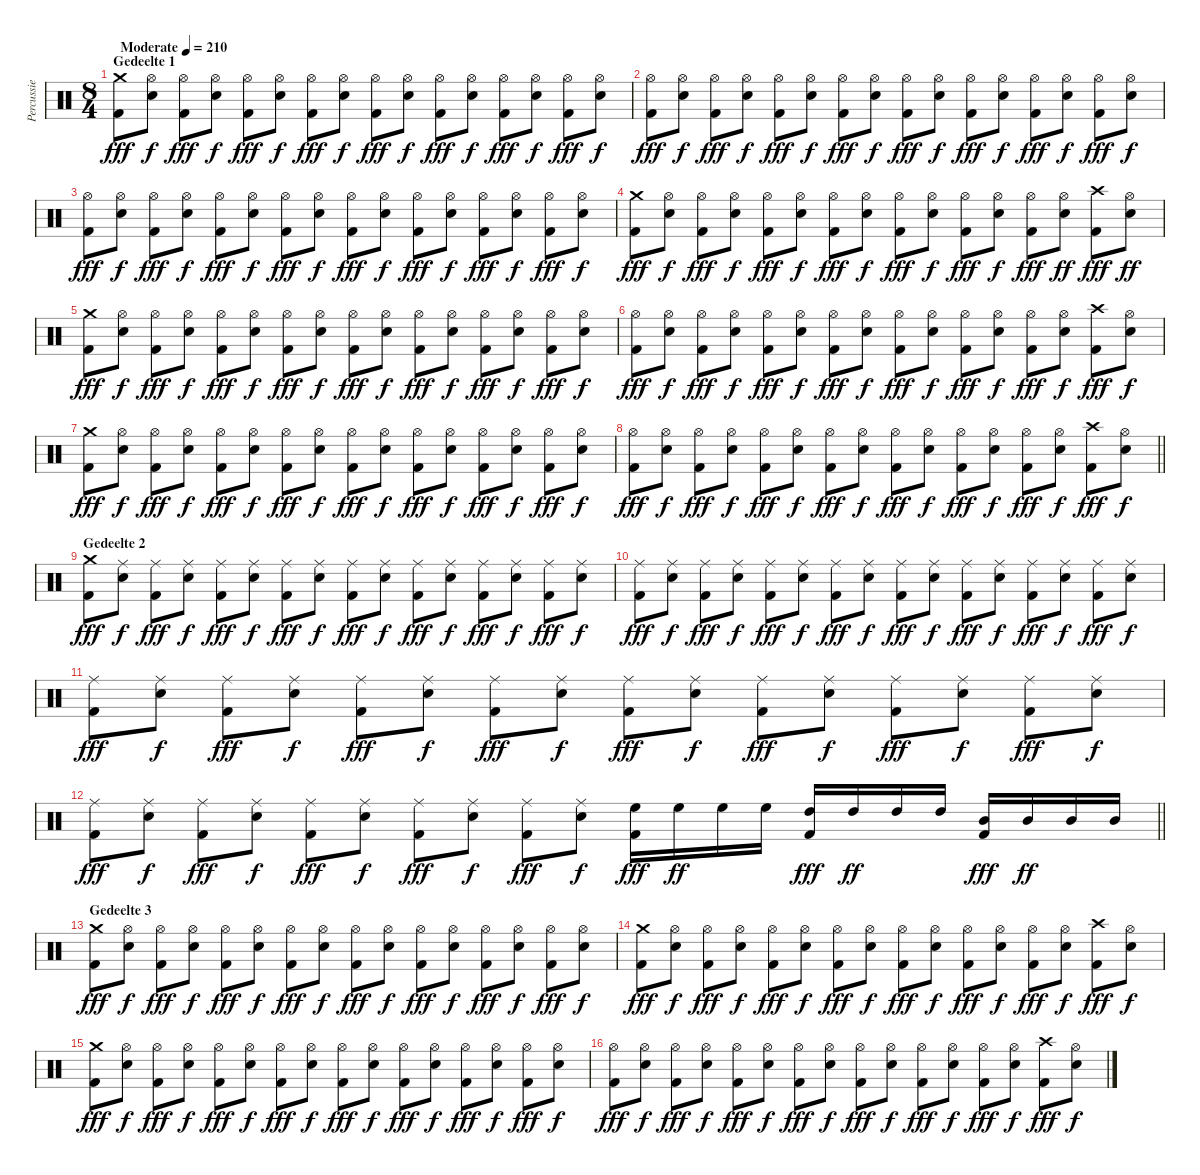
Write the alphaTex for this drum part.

\track ("Percussie" "Percussie") {instrument percussion}
\staff {score}
\articulation defaults
\ts (8 4)
\section ("" "Gedeelte 1")
\tempo (210 "Moderate")
\clef neutral
\ks c
("Crash medium (hit)" "Kick (hit) 2").8{dy fff} ("Hi-Hat (open)" "Snare (hit) 2").8{dy f} ("Hi-Hat (open)" "Kick (hit) 2").8{dy fff} ("Hi-Hat (open)" "Snare (hit) 2").8{dy f} ("Hi-Hat (open)" "Kick (hit) 2").8{dy fff} ("Hi-Hat (open)" "Snare (hit) 2").8{dy f} ("Hi-Hat (open)" "Kick (hit) 2").8{dy fff} ("Hi-Hat (open)" "Snare (hit) 2").8{dy f} ("Hi-Hat (open)" "Kick (hit) 2").8{dy fff} ("Hi-Hat (open)" "Snare (hit) 2").8{dy f} ("Hi-Hat (open)" "Kick (hit) 2").8{dy fff} ("Hi-Hat (open)" "Snare (hit) 2").8{dy f} ("Hi-Hat (open)" "Kick (hit) 2").8{dy fff} ("Hi-Hat (open)" "Snare (hit) 2").8{dy f} ("Hi-Hat (open)" "Kick (hit) 2").8{dy fff} ("Hi-Hat (open)" "Snare (hit) 2").8{dy f} |
("Hi-Hat (open)" "Kick (hit) 2").8{dy fff} ("Hi-Hat (open)" "Snare (hit) 2").8{dy f} ("Hi-Hat (open)" "Kick (hit) 2").8{dy fff} ("Hi-Hat (open)" "Snare (hit) 2").8{dy f} ("Hi-Hat (open)" "Kick (hit) 2").8{dy fff} ("Hi-Hat (open)" "Snare (hit) 2").8{dy f} ("Hi-Hat (open)" "Kick (hit) 2").8{dy fff} ("Hi-Hat (open)" "Snare (hit) 2").8{dy f} ("Hi-Hat (open)" "Kick (hit) 2").8{dy fff} ("Hi-Hat (open)" "Snare (hit) 2").8{dy f} ("Hi-Hat (open)" "Kick (hit) 2").8{dy fff} ("Hi-Hat (open)" "Snare (hit) 2").8{dy f} ("Hi-Hat (open)" "Kick (hit) 2").8{dy fff} ("Hi-Hat (open)" "Snare (hit) 2").8{dy f} ("Hi-Hat (open)" "Kick (hit) 2").8{dy fff} ("Hi-Hat (open)" "Snare (hit) 2").8{dy f} |
("Hi-Hat (open)" "Kick (hit) 2").8{dy fff} ("Hi-Hat (open)" "Snare (hit) 2").8{dy f} ("Hi-Hat (open)" "Kick (hit) 2").8{dy fff} ("Hi-Hat (open)" "Snare (hit) 2").8{dy f} ("Hi-Hat (open)" "Kick (hit) 2").8{dy fff} ("Hi-Hat (open)" "Snare (hit) 2").8{dy f} ("Hi-Hat (open)" "Kick (hit) 2").8{dy fff} ("Hi-Hat (open)" "Snare (hit) 2").8{dy f} ("Hi-Hat (open)" "Kick (hit) 2").8{dy fff} ("Hi-Hat (open)" "Snare (hit) 2").8{dy f} ("Hi-Hat (open)" "Kick (hit) 2").8{dy fff} ("Hi-Hat (open)" "Snare (hit) 2").8{dy f} ("Hi-Hat (open)" "Kick (hit) 2").8{dy fff} ("Hi-Hat (open)" "Snare (hit) 2").8{dy f} ("Hi-Hat (open)" "Kick (hit) 2").8{dy fff} ("Hi-Hat (open)" "Snare (hit) 2").8{dy f} |
("Crash medium (hit)" "Kick (hit) 2").8{dy fff} ("Hi-Hat (open)" "Snare (hit) 2").8{dy f} ("Hi-Hat (open)" "Kick (hit) 2").8{dy fff} ("Hi-Hat (open)" "Snare (hit) 2").8{dy f} ("Hi-Hat (open)" "Kick (hit) 2").8{dy fff} ("Hi-Hat (open)" "Snare (hit) 2").8{dy f} ("Hi-Hat (open)" "Kick (hit) 2").8{dy fff} ("Hi-Hat (open)" "Snare (hit) 2").8{dy f} ("Hi-Hat (open)" "Kick (hit) 2").8{dy fff} ("Hi-Hat (open)" "Snare (hit) 2").8{dy f} ("Hi-Hat (open)" "Kick (hit) 2").8{dy fff} ("Hi-Hat (open)" "Snare (hit) 2").8{dy f} ("Hi-Hat (open)" "Kick (hit) 2").8{dy fff} ("Hi-Hat (open)" "Snare (hit) 2").8{dy ff} ("Crash high (hit)" "Kick (hit) 2").8{dy fff} ("Hi-Hat (open)" "Snare (hit) 2").8{dy ff} |
("Crash medium (hit)" "Kick (hit) 2").8{dy fff} ("Hi-Hat (open)" "Snare (hit) 2").8{dy f} ("Hi-Hat (open)" "Kick (hit) 2").8{dy fff} ("Hi-Hat (open)" "Snare (hit) 2").8{dy f} ("Hi-Hat (open)" "Kick (hit) 2").8{dy fff} ("Hi-Hat (open)" "Snare (hit) 2").8{dy f} ("Hi-Hat (open)" "Kick (hit) 2").8{dy fff} ("Hi-Hat (open)" "Snare (hit) 2").8{dy f} ("Hi-Hat (open)" "Kick (hit) 2").8{dy fff} ("Hi-Hat (open)" "Snare (hit) 2").8{dy f} ("Hi-Hat (open)" "Kick (hit) 2").8{dy fff} ("Hi-Hat (open)" "Snare (hit) 2").8{dy f} ("Hi-Hat (open)" "Kick (hit) 2").8{dy fff} ("Hi-Hat (open)" "Snare (hit) 2").8{dy f} ("Hi-Hat (open)" "Kick (hit) 2").8{dy fff} ("Hi-Hat (open)" "Snare (hit) 2").8{dy f} |
("Hi-Hat (open)" "Kick (hit) 2").8{dy fff} ("Hi-Hat (open)" "Snare (hit) 2").8{dy f} ("Hi-Hat (open)" "Kick (hit) 2").8{dy fff} ("Hi-Hat (open)" "Snare (hit) 2").8{dy f} ("Hi-Hat (open)" "Kick (hit) 2").8{dy fff} ("Hi-Hat (open)" "Snare (hit) 2").8{dy f} ("Hi-Hat (open)" "Kick (hit) 2").8{dy fff} ("Hi-Hat (open)" "Snare (hit) 2").8{dy f} ("Hi-Hat (open)" "Kick (hit) 2").8{dy fff} ("Hi-Hat (open)" "Snare (hit) 2").8{dy f} ("Hi-Hat (open)" "Kick (hit) 2").8{dy fff} ("Hi-Hat (open)" "Snare (hit) 2").8{dy f} ("Hi-Hat (open)" "Kick (hit) 2").8{dy fff} ("Hi-Hat (open)" "Snare (hit) 2").8{dy f} ("Crash high (hit)" "Kick (hit) 2").8{dy fff} ("Hi-Hat (open)" "Snare (hit) 2").8{dy f} |
("Crash medium (hit)" "Kick (hit) 2").8{dy fff} ("Hi-Hat (open)" "Snare (hit) 2").8{dy f} ("Hi-Hat (open)" "Kick (hit) 2").8{dy fff} ("Hi-Hat (open)" "Snare (hit) 2").8{dy f} ("Hi-Hat (open)" "Kick (hit) 2").8{dy fff} ("Hi-Hat (open)" "Snare (hit) 2").8{dy f} ("Hi-Hat (open)" "Kick (hit) 2").8{dy fff} ("Hi-Hat (open)" "Snare (hit) 2").8{dy f} ("Hi-Hat (open)" "Kick (hit) 2").8{dy fff} ("Hi-Hat (open)" "Snare (hit) 2").8{dy f} ("Hi-Hat (open)" "Kick (hit) 2").8{dy fff} ("Hi-Hat (open)" "Snare (hit) 2").8{dy f} ("Hi-Hat (open)" "Kick (hit) 2").8{dy fff} ("Hi-Hat (open)" "Snare (hit) 2").8{dy f} ("Hi-Hat (open)" "Kick (hit) 2").8{dy fff} ("Hi-Hat (open)" "Snare (hit) 2").8{dy f} |
\barLineRight lightlight
("Hi-Hat (open)" "Kick (hit) 2").8{dy fff} ("Hi-Hat (open)" "Snare (hit) 2").8{dy f} ("Hi-Hat (open)" "Kick (hit) 2").8{dy fff} ("Hi-Hat (open)" "Snare (hit) 2").8{dy f} ("Hi-Hat (open)" "Kick (hit) 2").8{dy fff} ("Hi-Hat (open)" "Snare (hit) 2").8{dy f} ("Hi-Hat (open)" "Kick (hit) 2").8{dy fff} ("Hi-Hat (open)" "Snare (hit) 2").8{dy f} ("Hi-Hat (open)" "Kick (hit) 2").8{dy fff} ("Hi-Hat (open)" "Snare (hit) 2").8{dy f} ("Hi-Hat (open)" "Kick (hit) 2").8{dy fff} ("Hi-Hat (open)" "Snare (hit) 2").8{dy f} ("Hi-Hat (open)" "Kick (hit) 2").8{dy fff} ("Hi-Hat (open)" "Snare (hit) 2").8{dy f} ("Crash high (hit)" "Kick (hit) 2").8{dy fff} ("Hi-Hat (open)" "Snare (hit) 2").8{dy f} |
\section ("" "Gedeelte 2")
("Crash medium (hit)" "Kick (hit) 2").8{dy fff} ("Ride (middle)" "Snare (hit) 2").8{dy f} ("Ride (middle)" "Kick (hit) 2").8{dy fff} ("Ride (middle)" "Snare (hit) 2").8{dy f} ("Ride (middle)" "Kick (hit) 2").8{dy fff} ("Ride (middle)" "Snare (hit) 2").8{dy f} ("Ride (middle)" "Kick (hit) 2").8{dy fff} ("Ride (middle)" "Snare (hit) 2").8{dy f} ("Ride (middle)" "Kick (hit) 2").8{dy fff} ("Ride (middle)" "Snare (hit) 2").8{dy f} ("Ride (middle)" "Kick (hit) 2").8{dy fff} ("Ride (middle)" "Snare (hit) 2").8{dy f} ("Ride (middle)" "Kick (hit) 2").8{dy fff} ("Ride (middle)" "Snare (hit) 2").8{dy f} ("Ride (middle)" "Kick (hit) 2").8{dy fff} ("Ride (middle)" "Snare (hit) 2").8{dy f} |
("Ride (middle)" "Kick (hit) 2").8{dy fff} ("Ride (middle)" "Snare (hit) 2").8{dy f} ("Ride (middle)" "Kick (hit) 2").8{dy fff} ("Ride (middle)" "Snare (hit) 2").8{dy f} ("Ride (middle)" "Kick (hit) 2").8{dy fff} ("Ride (middle)" "Snare (hit) 2").8{dy f} ("Ride (middle)" "Kick (hit) 2").8{dy fff} ("Ride (middle)" "Snare (hit) 2").8{dy f} ("Ride (middle)" "Kick (hit) 2").8{dy fff} ("Ride (middle)" "Snare (hit) 2").8{dy f} ("Ride (middle)" "Kick (hit) 2").8{dy fff} ("Ride (middle)" "Snare (hit) 2").8{dy f} ("Ride (middle)" "Kick (hit) 2").8{dy fff} ("Ride (middle)" "Snare (hit) 2").8{dy f} ("Ride (middle)" "Kick (hit) 2").8{dy fff} ("Ride (middle)" "Snare (hit) 2").8{dy f} |
("Ride (middle)" "Kick (hit) 2").8{dy fff} ("Ride (middle)" "Snare (hit) 2").8{dy f} ("Ride (middle)" "Kick (hit) 2").8{dy fff} ("Ride (middle)" "Snare (hit) 2").8{dy f} ("Ride (middle)" "Kick (hit) 2").8{dy fff} ("Ride (middle)" "Snare (hit) 2").8{dy f} ("Ride (middle)" "Kick (hit) 2").8{dy fff} ("Ride (middle)" "Snare (hit) 2").8{dy f} ("Ride (middle)" "Kick (hit) 2").8{dy fff} ("Ride (middle)" "Snare (hit) 2").8{dy f} ("Ride (middle)" "Kick (hit) 2").8{dy fff} ("Ride (middle)" "Snare (hit) 2").8{dy f} ("Ride (middle)" "Kick (hit) 2").8{dy fff} ("Ride (middle)" "Snare (hit) 2").8{dy f} ("Ride (middle)" "Kick (hit) 2").8{dy fff} ("Ride (middle)" "Snare (hit) 2").8{dy f} |
\barLineRight lightlight
("Ride (middle)" "Kick (hit) 2").8{dy fff} ("Ride (middle)" "Snare (hit) 2").8{dy f} ("Ride (middle)" "Kick (hit) 2").8{dy fff} ("Ride (middle)" "Snare (hit) 2").8{dy f} ("Ride (middle)" "Kick (hit) 2").8{dy fff} ("Ride (middle)" "Snare (hit) 2").8{dy f} ("Ride (middle)" "Kick (hit) 2").8{dy fff} ("Ride (middle)" "Snare (hit) 2").8{dy f} ("Ride (middle)" "Kick (hit) 2").8{dy fff} ("Ride (middle)" "Snare (hit) 2").8{dy f} ("High Floor Tom (hit)" "Kick (hit) 2").16{dy fff} "High Floor Tom (hit)".16{dy ff} "High Floor Tom (hit)".16 "High Floor Tom (hit)".16 ("High Tom (hit)" "Kick (hit) 2").16{dy fff} "High Tom (hit)".16{dy ff} "High Tom (hit)".16 "High Tom (hit)".16 ("Mid Tom (hit)" "Kick (hit) 2").16{dy fff} "Mid Tom (hit)".16{dy ff} "Mid Tom (hit)".16 "Mid Tom (hit)".16 |
\section ("" "Gedeelte 3")
("Crash medium (hit)" "Kick (hit) 2").8{dy fff} ("Hi-Hat (open)" "Snare (hit) 2").8{dy f} ("Hi-Hat (open)" "Kick (hit) 2").8{dy fff} ("Hi-Hat (open)" "Snare (hit) 2").8{dy f} ("Hi-Hat (open)" "Kick (hit) 2").8{dy fff} ("Hi-Hat (open)" "Snare (hit) 2").8{dy f} ("Hi-Hat (open)" "Kick (hit) 2").8{dy fff} ("Hi-Hat (open)" "Snare (hit) 2").8{dy f} ("Hi-Hat (open)" "Kick (hit) 2").8{dy fff} ("Hi-Hat (open)" "Snare (hit) 2").8{dy f} ("Hi-Hat (open)" "Kick (hit) 2").8{dy fff} ("Hi-Hat (open)" "Snare (hit) 2").8{dy f} ("Hi-Hat (open)" "Kick (hit) 2").8{dy fff} ("Hi-Hat (open)" "Snare (hit) 2").8{dy f} ("Hi-Hat (open)" "Kick (hit) 2").8{dy fff} ("Hi-Hat (open)" "Snare (hit) 2").8{dy f} |
("Crash medium (hit)" "Kick (hit) 2").8{dy fff} ("Hi-Hat (open)" "Snare (hit) 2").8{dy f} ("Hi-Hat (open)" "Kick (hit) 2").8{dy fff} ("Hi-Hat (open)" "Snare (hit) 2").8{dy f} ("Hi-Hat (open)" "Kick (hit) 2").8{dy fff} ("Hi-Hat (open)" "Snare (hit) 2").8{dy f} ("Hi-Hat (open)" "Kick (hit) 2").8{dy fff} ("Hi-Hat (open)" "Snare (hit) 2").8{dy f} ("Hi-Hat (open)" "Kick (hit) 2").8{dy fff} ("Hi-Hat (open)" "Snare (hit) 2").8{dy f} ("Hi-Hat (open)" "Kick (hit) 2").8{dy fff} ("Hi-Hat (open)" "Snare (hit) 2").8{dy f} ("Hi-Hat (open)" "Kick (hit) 2").8{dy fff} ("Hi-Hat (open)" "Snare (hit) 2").8{dy f} ("Crash high (hit)" "Kick (hit) 2").8{dy fff} ("Hi-Hat (open)" "Snare (hit) 2").8{dy f} |
("Crash medium (hit)" "Kick (hit) 2").8{dy fff} ("Hi-Hat (open)" "Snare (hit) 2").8{dy f} ("Hi-Hat (open)" "Kick (hit) 2").8{dy fff} ("Hi-Hat (open)" "Snare (hit) 2").8{dy f} ("Hi-Hat (open)" "Kick (hit) 2").8{dy fff} ("Hi-Hat (open)" "Snare (hit) 2").8{dy f} ("Hi-Hat (open)" "Kick (hit) 2").8{dy fff} ("Hi-Hat (open)" "Snare (hit) 2").8{dy f} ("Hi-Hat (open)" "Kick (hit) 2").8{dy fff} ("Hi-Hat (open)" "Snare (hit) 2").8{dy f} ("Hi-Hat (open)" "Kick (hit) 2").8{dy fff} ("Hi-Hat (open)" "Snare (hit) 2").8{dy f} ("Hi-Hat (open)" "Kick (hit) 2").8{dy fff} ("Hi-Hat (open)" "Snare (hit) 2").8{dy f} ("Hi-Hat (open)" "Kick (hit) 2").8{dy fff} ("Hi-Hat (open)" "Snare (hit) 2").8{dy f} |
("Hi-Hat (open)" "Kick (hit) 2").8{dy fff} ("Hi-Hat (open)" "Snare (hit) 2").8{dy f} ("Hi-Hat (open)" "Kick (hit) 2").8{dy fff} ("Hi-Hat (open)" "Snare (hit) 2").8{dy f} ("Hi-Hat (open)" "Kick (hit) 2").8{dy fff} ("Hi-Hat (open)" "Snare (hit) 2").8{dy f} ("Hi-Hat (open)" "Kick (hit) 2").8{dy fff} ("Hi-Hat (open)" "Snare (hit) 2").8{dy f} ("Hi-Hat (open)" "Kick (hit) 2").8{dy fff} ("Hi-Hat (open)" "Snare (hit) 2").8{dy f} ("Hi-Hat (open)" "Kick (hit) 2").8{dy fff} ("Hi-Hat (open)" "Snare (hit) 2").8{dy f} ("Hi-Hat (open)" "Kick (hit) 2").8{dy fff} ("Hi-Hat (open)" "Snare (hit) 2").8{dy f} ("Crash high (hit)" "Kick (hit) 2").8{dy fff} ("Hi-Hat (open)" "Snare (hit) 2").8{dy f}
